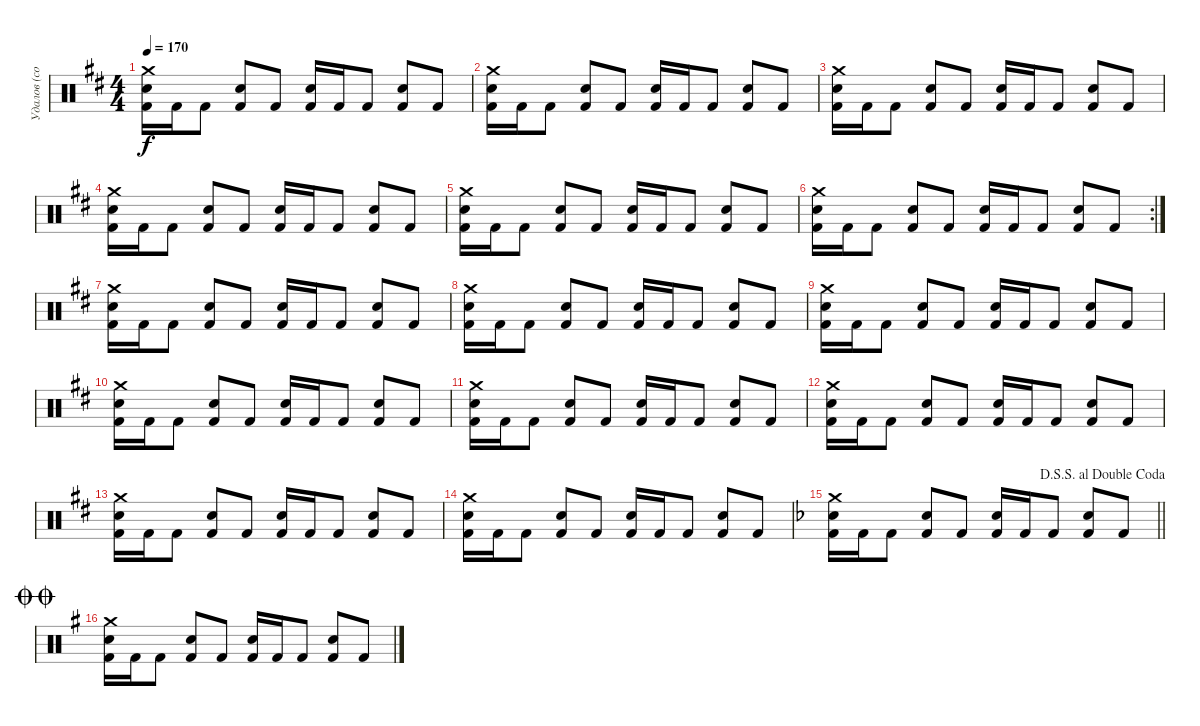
\track ("Удалов (сорри за ударные)" "Удалов (со") {instrument percussion}
\staff {score}
\articulation defaults
\ts (4 4)
\tempo 170
\clef neutral
\ks d
("Crash medium (hit)" "Snare (hit) 2" "Kick (hit) 2").16{dy f} "Kick (hit) 2".16 "Kick (hit) 2".8 ("Snare (hit) 2" "Kick (hit) 2").8 "Kick (hit) 2".8 ("Snare (hit) 2" "Kick (hit) 2").16 "Kick (hit) 2".16 "Kick (hit) 2".8 ("Snare (hit) 2" "Kick (hit) 2").8 "Kick (hit) 2".8 |
("Crash medium (hit)" "Snare (hit) 2" "Kick (hit) 2").16 "Kick (hit) 2".16 "Kick (hit) 2".8 ("Snare (hit) 2" "Kick (hit) 2").8 "Kick (hit) 2".8 ("Snare (hit) 2" "Kick (hit) 2").16 "Kick (hit) 2".16 "Kick (hit) 2".8 ("Snare (hit) 2" "Kick (hit) 2").8 "Kick (hit) 2".8 |
("Crash medium (hit)" "Snare (hit) 2" "Kick (hit) 2").16 "Kick (hit) 2".16 "Kick (hit) 2".8 ("Snare (hit) 2" "Kick (hit) 2").8 "Kick (hit) 2".8 ("Snare (hit) 2" "Kick (hit) 2").16 "Kick (hit) 2".16 "Kick (hit) 2".8 ("Snare (hit) 2" "Kick (hit) 2").8 "Kick (hit) 2".8 |
("Crash medium (hit)" "Snare (hit) 2" "Kick (hit) 2").16 "Kick (hit) 2".16 "Kick (hit) 2".8 ("Snare (hit) 2" "Kick (hit) 2").8 "Kick (hit) 2".8 ("Snare (hit) 2" "Kick (hit) 2").16 "Kick (hit) 2".16 "Kick (hit) 2".8 ("Snare (hit) 2" "Kick (hit) 2").8 "Kick (hit) 2".8 |
("Crash medium (hit)" "Snare (hit) 2" "Kick (hit) 2").16 "Kick (hit) 2".16 "Kick (hit) 2".8 ("Snare (hit) 2" "Kick (hit) 2").8 "Kick (hit) 2".8 ("Snare (hit) 2" "Kick (hit) 2").16 "Kick (hit) 2".16 "Kick (hit) 2".8 ("Snare (hit) 2" "Kick (hit) 2").8 "Kick (hit) 2".8 |
\rc 2
("Crash medium (hit)" "Snare (hit) 2" "Kick (hit) 2").16 "Kick (hit) 2".16 "Kick (hit) 2".8 ("Snare (hit) 2" "Kick (hit) 2").8 "Kick (hit) 2".8 ("Snare (hit) 2" "Kick (hit) 2").16 "Kick (hit) 2".16 "Kick (hit) 2".8 ("Snare (hit) 2" "Kick (hit) 2").8 "Kick (hit) 2".8 |
("Crash medium (hit)" "Snare (hit) 2" "Kick (hit) 2").16 "Kick (hit) 2".16 "Kick (hit) 2".8 ("Snare (hit) 2" "Kick (hit) 2").8 "Kick (hit) 2".8 ("Snare (hit) 2" "Kick (hit) 2").16 "Kick (hit) 2".16 "Kick (hit) 2".8 ("Snare (hit) 2" "Kick (hit) 2").8 "Kick (hit) 2".8 |
("Crash medium (hit)" "Snare (hit) 2" "Kick (hit) 2").16 "Kick (hit) 2".16 "Kick (hit) 2".8 ("Snare (hit) 2" "Kick (hit) 2").8 "Kick (hit) 2".8 ("Snare (hit) 2" "Kick (hit) 2").16 "Kick (hit) 2".16 "Kick (hit) 2".8 ("Snare (hit) 2" "Kick (hit) 2").8 "Kick (hit) 2".8 |
("Crash medium (hit)" "Snare (hit) 2" "Kick (hit) 2").16 "Kick (hit) 2".16 "Kick (hit) 2".8 ("Snare (hit) 2" "Kick (hit) 2").8 "Kick (hit) 2".8 ("Snare (hit) 2" "Kick (hit) 2").16 "Kick (hit) 2".16 "Kick (hit) 2".8 ("Snare (hit) 2" "Kick (hit) 2").8 "Kick (hit) 2".8 |
("Crash medium (hit)" "Snare (hit) 2" "Kick (hit) 2").16 "Kick (hit) 2".16 "Kick (hit) 2".8 ("Snare (hit) 2" "Kick (hit) 2").8 "Kick (hit) 2".8 ("Snare (hit) 2" "Kick (hit) 2").16 "Kick (hit) 2".16 "Kick (hit) 2".8 ("Snare (hit) 2" "Kick (hit) 2").8 "Kick (hit) 2".8 |
("Crash medium (hit)" "Snare (hit) 2" "Kick (hit) 2").16 "Kick (hit) 2".16 "Kick (hit) 2".8 ("Snare (hit) 2" "Kick (hit) 2").8 "Kick (hit) 2".8 ("Snare (hit) 2" "Kick (hit) 2").16 "Kick (hit) 2".16 "Kick (hit) 2".8 ("Snare (hit) 2" "Kick (hit) 2").8 "Kick (hit) 2".8 |
("Crash medium (hit)" "Snare (hit) 2" "Kick (hit) 2").16 "Kick (hit) 2".16 "Kick (hit) 2".8 ("Snare (hit) 2" "Kick (hit) 2").8 "Kick (hit) 2".8 ("Snare (hit) 2" "Kick (hit) 2").16 "Kick (hit) 2".16 "Kick (hit) 2".8 ("Snare (hit) 2" "Kick (hit) 2").8 "Kick (hit) 2".8 |
("Crash medium (hit)" "Snare (hit) 2" "Kick (hit) 2").16 "Kick (hit) 2".16 "Kick (hit) 2".8 ("Snare (hit) 2" "Kick (hit) 2").8 "Kick (hit) 2".8 ("Snare (hit) 2" "Kick (hit) 2").16 "Kick (hit) 2".16 "Kick (hit) 2".8 ("Snare (hit) 2" "Kick (hit) 2").8 "Kick (hit) 2".8 |
("Crash medium (hit)" "Snare (hit) 2" "Kick (hit) 2").16 "Kick (hit) 2".16 "Kick (hit) 2".8 ("Snare (hit) 2" "Kick (hit) 2").8 "Kick (hit) 2".8 ("Snare (hit) 2" "Kick (hit) 2").16 "Kick (hit) 2".16 "Kick (hit) 2".8 ("Snare (hit) 2" "Kick (hit) 2").8 "Kick (hit) 2".8 |
\jump dalsegnosegnoaldoublecoda
\barLineRight lightlight
\ks f
("Crash medium (hit)" "Snare (hit) 2" "Kick (hit) 2").16 "Kick (hit) 2".16 "Kick (hit) 2".8 ("Snare (hit) 2" "Kick (hit) 2").8 "Kick (hit) 2".8 ("Snare (hit) 2" "Kick (hit) 2").16 "Kick (hit) 2".16 "Kick (hit) 2".8 ("Snare (hit) 2" "Kick (hit) 2").8 "Kick (hit) 2".8 |
\jump doublecoda
\ks g
("Crash medium (hit)" "Snare (hit) 2" "Kick (hit) 2").16 "Kick (hit) 2".16 "Kick (hit) 2".8 ("Snare (hit) 2" "Kick (hit) 2").8 "Kick (hit) 2".8 ("Snare (hit) 2" "Kick (hit) 2").16 "Kick (hit) 2".16 "Kick (hit) 2".8 ("Snare (hit) 2" "Kick (hit) 2").8 "Kick (hit) 2".8
